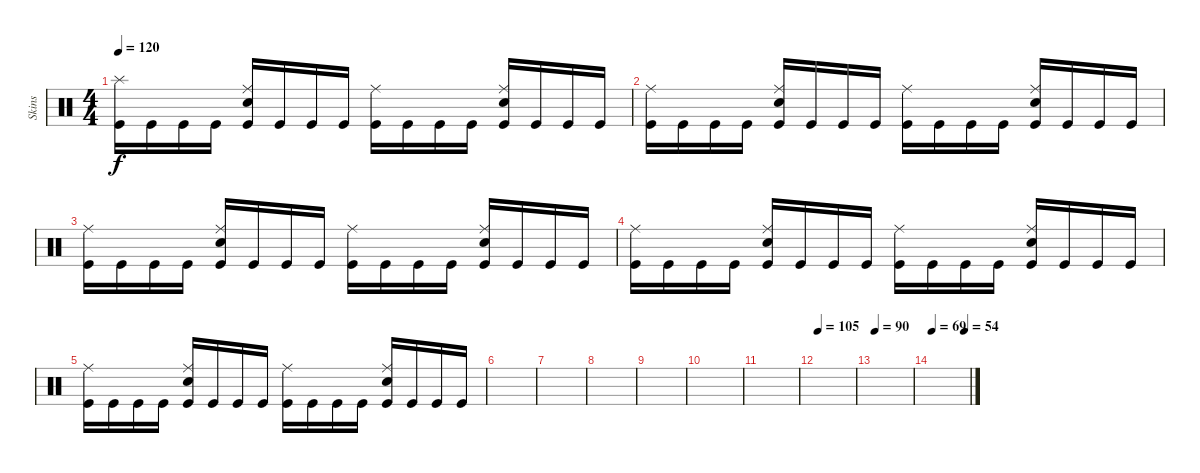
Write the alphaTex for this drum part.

\track ("Skins" "Skins") {instrument percussion}
\staff {score}
\articulation defaults
\ts (4 4)
\tempo 120
\clef neutral
\ks c
("Splash (hit)" "Kick (hit)").16{dy f} "Kick (hit)".16 "Kick (hit)".16 "Kick (hit)".16 ("Ride (middle)" "Electric Snare (hit)" "Kick (hit)").16 "Kick (hit)".16 "Kick (hit)".16 "Kick (hit)".16 ("Ride (middle)" "Kick (hit)").16 "Kick (hit)".16 "Kick (hit)".16 "Kick (hit)".16 ("Ride (middle)" "Electric Snare (hit)" "Kick (hit)").16 "Kick (hit)".16 "Kick (hit)".16 "Kick (hit)".16 |
("Ride (middle)" "Kick (hit)").16{volume 4} "Kick (hit)".16 "Kick (hit)".16 "Kick (hit)".16 ("Ride (middle)" "Electric Snare (hit)" "Kick (hit)").16 "Kick (hit)".16 "Kick (hit)".16 "Kick (hit)".16 ("Ride (middle)" "Kick (hit)").16 "Kick (hit)".16 "Kick (hit)".16 "Kick (hit)".16 ("Ride (middle)" "Electric Snare (hit)" "Kick (hit)").16 "Kick (hit)".16 "Kick (hit)".16 "Kick (hit)".16 |
("Ride (middle)" "Kick (hit)").16{volume 3} "Kick (hit)".16 "Kick (hit)".16 "Kick (hit)".16 ("Ride (middle)" "Electric Snare (hit)" "Kick (hit)").16 "Kick (hit)".16 "Kick (hit)".16 "Kick (hit)".16 ("Ride (middle)" "Kick (hit)").16 "Kick (hit)".16 "Kick (hit)".16 "Kick (hit)".16 ("Ride (middle)" "Electric Snare (hit)" "Kick (hit)").16 "Kick (hit)".16 "Kick (hit)".16 "Kick (hit)".16 |
("Ride (middle)" "Kick (hit)").16{volume 2} "Kick (hit)".16 "Kick (hit)".16 "Kick (hit)".16 ("Ride (middle)" "Electric Snare (hit)" "Kick (hit)").16 "Kick (hit)".16 "Kick (hit)".16 "Kick (hit)".16 ("Ride (middle)" "Kick (hit)").16 "Kick (hit)".16 "Kick (hit)".16 "Kick (hit)".16 ("Ride (middle)" "Electric Snare (hit)" "Kick (hit)").16 "Kick (hit)".16 "Kick (hit)".16 "Kick (hit)".16 |
("Ride (middle)" "Kick (hit)").16{volume 1} "Kick (hit)".16 "Kick (hit)".16 "Kick (hit)".16 ("Ride (middle)" "Electric Snare (hit)" "Kick (hit)").16 "Kick (hit)".16 "Kick (hit)".16 "Kick (hit)".16 ("Ride (middle)" "Kick (hit)").16 "Kick (hit)".16 "Kick (hit)".16 "Kick (hit)".16 ("Ride (middle)" "Electric Snare (hit)" "Kick (hit)").16 "Kick (hit)".16 "Kick (hit)".16 "Kick (hit)".16 |
|
|
|
|
|
|
\tempo 105
|
\tempo 90
|
\tempo 69
\tempo (54 0.875)
